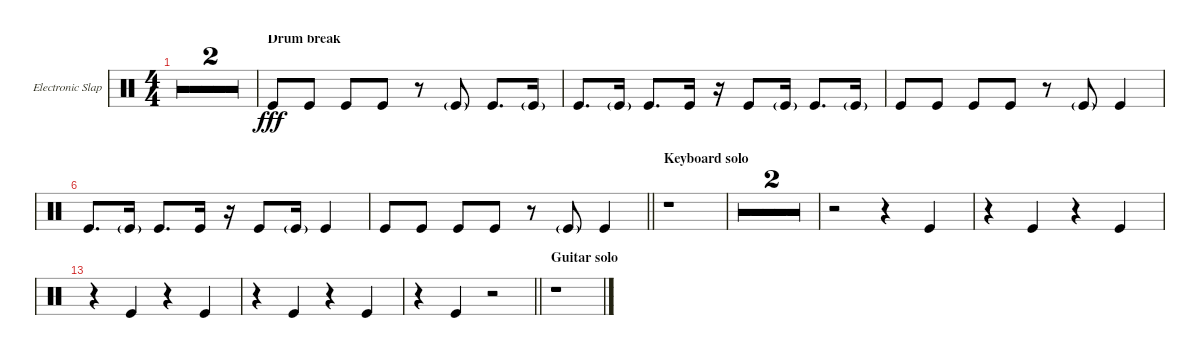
\defaultSystemsLayout 4
\bracketExtendMode groupsimilarinstruments
\useSystemSignSeparator
\multiBarRest
\multiTrackTrackNamePolicy allsystems
\firstSystemTrackNameMode fullname
\firstSystemTrackNameOrientation horizontal
\otherSystemsTrackNameOrientation horizontal
\defaultBarNumberDisplay FirstOfSystem
\track ("Electronic Slap" "Slap") {multiBarRest instrument percussion}
\staff {score}
\articulation defaults
\ts (4 4)
\tempo 119
\clef neutral
\ks aminor
r.1{dy fff} |
\barLineRight lightlight
r.1 |
\section ("" "Drum break")
"Kick (hit)".8 "Kick (hit)".8 "Kick (hit)".8 "Kick (hit)".8 r.8 "Kick (hit)"{g}.8 "Kick (hit)".8{d} "Kick (hit)"{g}.16 |
"Kick (hit)".8{d} "Kick (hit)"{g}.16 "Kick (hit)".8{d} "Kick (hit)".16 r.16 "Kick (hit)".8 "Kick (hit)"{g}.16 "Kick (hit)".8{d} "Kick (hit)"{g}.16 |
"Kick (hit)".8 "Kick (hit)".8 "Kick (hit)".8 "Kick (hit)".8 r.8 "Kick (hit)"{g}.8 "Kick (hit)".4 |
"Kick (hit)".8{d} "Kick (hit)"{g}.16 "Kick (hit)".8{d} "Kick (hit)".16 r.16 "Kick (hit)".8 "Kick (hit)"{g}.16 "Kick (hit)".4 |
\barLineRight lightlight "Kick (hit)".8 "Kick (hit)".8 "Kick (hit)".8 "Kick (hit)".8
r.8 "Kick (hit)"{g}.8 "Kick (hit)".4 |
\section ("" "Keyboard solo")
r.1 |
r.1 |
r.1 |
r.2 r.4 "Kick (hit)".4 |
r.4 "Kick (hit)".4 r.4 "Kick (hit)".4 |
r.4 "Kick (hit)".4 r.4 "Kick (hit)".4 |
r.4 "Kick (hit)".4 r.4 "Kick (hit)".4 |
\barLineRight lightlight
r.4 "Kick (hit)".4 r.2 |
\section ("" "Guitar solo")
r.1
